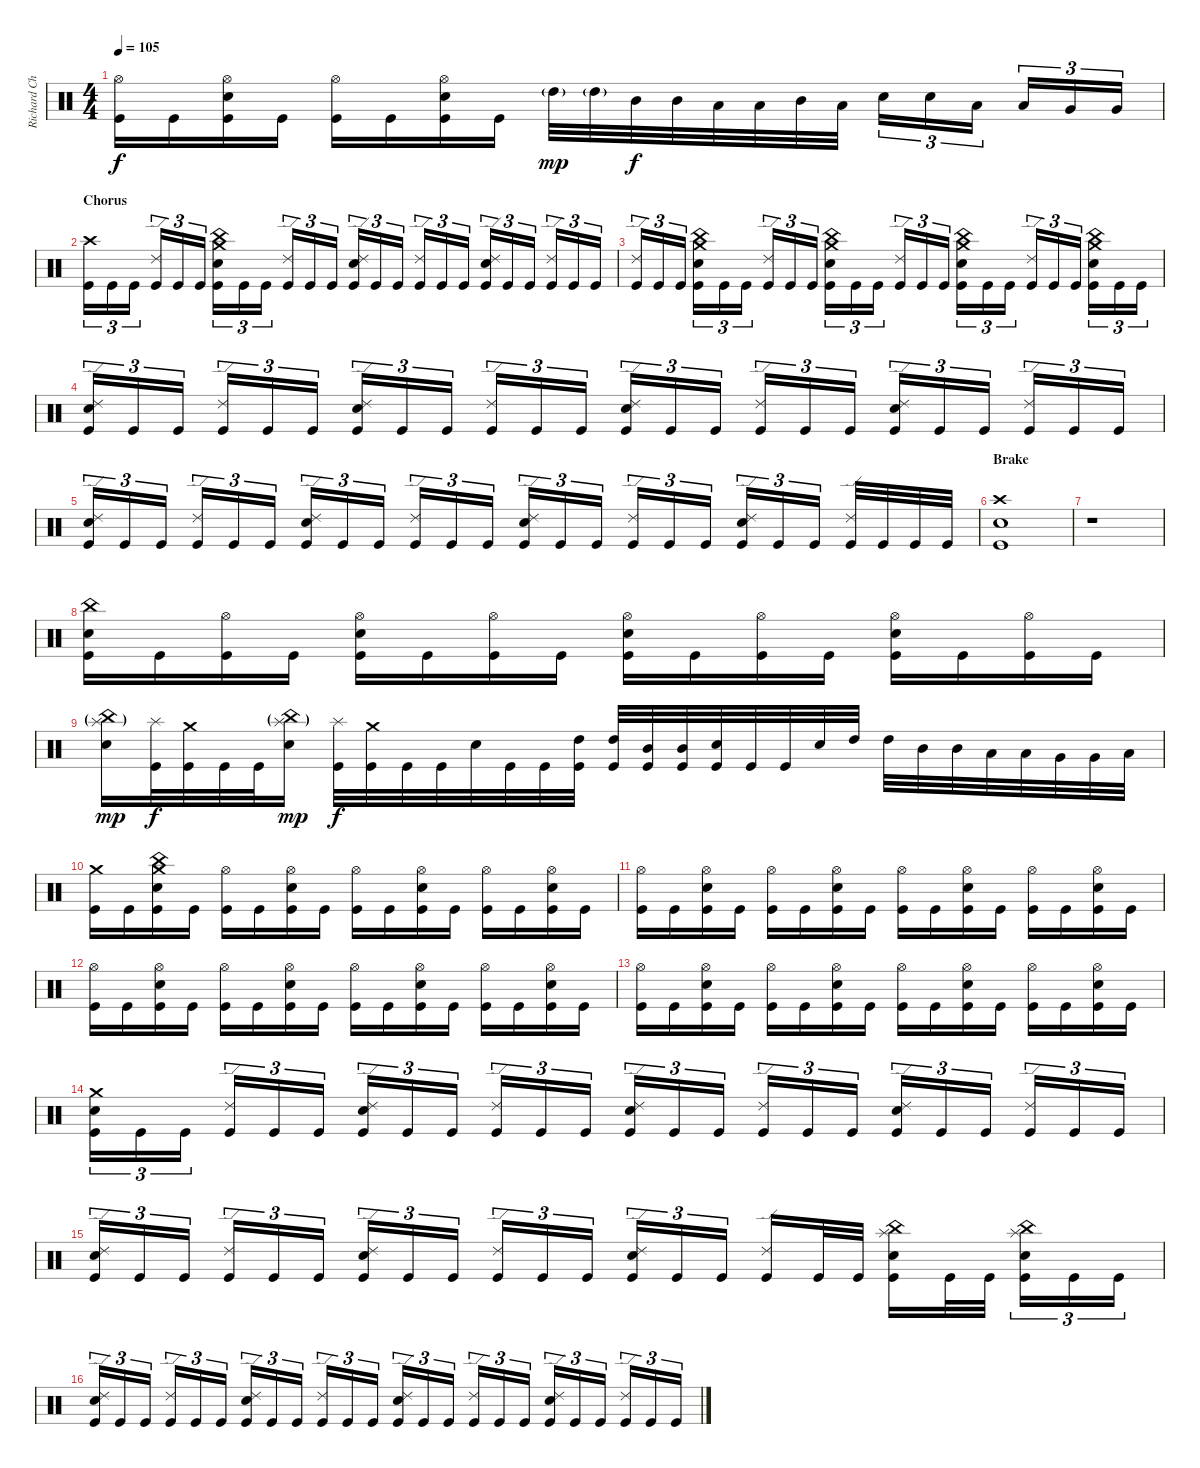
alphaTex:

\track ("Richard Christy" "Richard Ch") {instrument percussion}
\staff {score}
\articulation defaults
\ts (4 4)
\tempo 105
\clef neutral
\ks c
("Hi-Hat (open)" "Kick (hit)").16{dy f} "Kick (hit)".16 ("Hi-Hat (open)" "Electric Snare (hit)" "Kick (hit)").16 "Kick (hit)".16 ("Hi-Hat (open)" "Kick (hit)").16 "Kick (hit)".16 ("Hi-Hat (open)" "Electric Snare (hit)" "Kick (hit)").16 "Kick (hit)".16 "High Tom (hit)"{g}.32{dy mp} "High Tom (hit)"{g}.32 "Mid Tom (hit)".32{dy f} "Mid Tom (hit)".32 "Low Tom (hit)".32 "Low Tom (hit)".32 "Mid Tom (hit)".32 "Low Tom (hit)".32 "Electric Snare (hit)".16{tu (3 2)} "Electric Snare (hit)".16{tu (3 2)} "Low Tom (hit)".16{tu (3 2)} "Low Tom (hit)".16{tu (3 2)} "Very Low Tom (hit)".16{tu (3 2)} "Very Low Tom (hit)".16{tu (3 2)} |
\section ("" "Chorus")
("Crash high (hit)" "Kick (hit)").16{tu (3 2)} "Kick (hit)".16{tu (3 2)} "Kick (hit)".16{tu (3 2)} ("Ride (edge) 2" "Kick (hit)").16{tu (3 2)} "Kick (hit)".16{tu (3 2)} "Kick (hit)".16{tu (3 2)} ("Crash medium (hit)" "China (hit)" "Electric Snare (hit)" "Kick (hit)").16{tu (3 2)} "Kick (hit)".16{tu (3 2)} "Kick (hit)".16{tu (3 2)} ("Ride (edge) 2" "Kick (hit)").16{tu (3 2)} "Kick (hit)".16{tu (3 2)} "Kick (hit)".16{tu (3 2)} ("Ride (edge) 2" "Electric Snare (hit)" "Kick (hit)").16{tu (3 2)} "Kick (hit)".16{tu (3 2)} "Kick (hit)".16{tu (3 2)} ("Ride (edge) 2" "Kick (hit)").16{tu (3 2)} "Kick (hit)".16{tu (3 2)} "Kick (hit)".16{tu (3 2)} ("Ride (edge) 2" "Electric Snare (hit)" "Kick (hit)").16{tu (3 2)} "Kick (hit)".16{tu (3 2)} "Kick (hit)".16{tu (3 2)} ("Ride (edge) 2" "Kick (hit)").16{tu (3 2)} "Kick (hit)".16{tu (3 2)} "Kick (hit)".16{tu (3 2)} |
("Ride (edge) 2" "Kick (hit)").16{tu (3 2)} "Kick (hit)".16{tu (3 2)} "Kick (hit)".16{tu (3 2)} ("Crash medium (hit)" "China (hit)" "Electric Snare (hit)" "Kick (hit)").16{tu (3 2)} "Kick (hit)".16{tu (3 2)} "Kick (hit)".16{tu (3 2)} ("Ride (edge) 2" "Kick (hit)").16{tu (3 2)} "Kick (hit)".16{tu (3 2)} "Kick (hit)".16{tu (3 2)} ("Crash medium (hit)" "China (hit)" "Electric Snare (hit)" "Kick (hit)").16{tu (3 2)} "Kick (hit)".16{tu (3 2)} "Kick (hit)".16{tu (3 2)} ("Ride (edge) 2" "Kick (hit)").16{tu (3 2)} "Kick (hit)".16{tu (3 2)} "Kick (hit)".16{tu (3 2)} ("Crash medium (hit)" "China (hit)" "Electric Snare (hit)" "Kick (hit)").16{tu (3 2)} "Kick (hit)".16{tu (3 2)} "Kick (hit)".16{tu (3 2)} ("Ride (edge) 2" "Kick (hit)").16{tu (3 2)} "Kick (hit)".16{tu (3 2)} "Kick (hit)".16{tu (3 2)} ("Crash medium (hit)" "China (hit)" "Electric Snare (hit)" "Kick (hit)").16{tu (3 2)} "Kick (hit)".16{tu (3 2)} "Kick (hit)".16{tu (3 2)} |
("Ride (edge) 2" "Electric Snare (hit)" "Kick (hit)").16{tu (3 2)} "Kick (hit)".16{tu (3 2)} "Kick (hit)".16{tu (3 2)} ("Ride (edge) 2" "Kick (hit)").16{tu (3 2)} "Kick (hit)".16{tu (3 2)} "Kick (hit)".16{tu (3 2)} ("Ride (edge) 2" "Electric Snare (hit)" "Kick (hit)").16{tu (3 2)} "Kick (hit)".16{tu (3 2)} "Kick (hit)".16{tu (3 2)} ("Ride (edge) 2" "Kick (hit)").16{tu (3 2)} "Kick (hit)".16{tu (3 2)} "Kick (hit)".16{tu (3 2)} ("Ride (edge) 2" "Electric Snare (hit)" "Kick (hit)").16{tu (3 2)} "Kick (hit)".16{tu (3 2)} "Kick (hit)".16{tu (3 2)} ("Ride (edge) 2" "Kick (hit)").16{tu (3 2)} "Kick (hit)".16{tu (3 2)} "Kick (hit)".16{tu (3 2)} ("Ride (edge) 2" "Electric Snare (hit)" "Kick (hit)").16{tu (3 2)} "Kick (hit)".16{tu (3 2)} "Kick (hit)".16{tu (3 2)} ("Ride (edge) 2" "Kick (hit)").16{tu (3 2)} "Kick (hit)".16{tu (3 2)} "Kick (hit)".16{tu (3 2)} |
("Ride (edge) 2" "Electric Snare (hit)" "Kick (hit)").16{tu (3 2)} "Kick (hit)".16{tu (3 2)} "Kick (hit)".16{tu (3 2)} ("Ride (edge) 2" "Kick (hit)").16{tu (3 2)} "Kick (hit)".16{tu (3 2)} "Kick (hit)".16{tu (3 2)} ("Ride (edge) 2" "Electric Snare (hit)" "Kick (hit)").16{tu (3 2)} "Kick (hit)".16{tu (3 2)} "Kick (hit)".16{tu (3 2)} ("Ride (edge) 2" "Kick (hit)").16{tu (3 2)} "Kick (hit)".16{tu (3 2)} "Kick (hit)".16{tu (3 2)} ("Ride (edge) 2" "Electric Snare (hit)" "Kick (hit)").16{tu (3 2)} "Kick (hit)".16{tu (3 2)} "Kick (hit)".16{tu (3 2)} ("Ride (edge) 2" "Kick (hit)").16{tu (3 2)} "Kick (hit)".16{tu (3 2)} "Kick (hit)".16{tu (3 2)} ("Ride (edge) 2" "Electric Snare (hit)" "Kick (hit)").16{tu (3 2)} "Kick (hit)".16{tu (3 2)} "Kick (hit)".16{tu (3 2)} ("Ride (edge) 2" "Kick (hit)").32 "Kick (hit)".32 "Kick (hit)".32 "Kick (hit)".32 |
\section ("" "Brake")
("Crash high (hit)" "Electric Snare (hit)" "Kick (hit)").1 |
r.1 |
("China (hit)" "Electric Snare (hit)" "Kick (hit)").16 "Kick (hit)".16 ("Hi-Hat (open)" "Kick (hit)").16 "Kick (hit)".16 ("Hi-Hat (open)" "Electric Snare (hit)" "Kick (hit)").16 "Kick (hit)".16 ("Hi-Hat (open)" "Kick (hit)").16 "Kick (hit)".16 ("Hi-Hat (open)" "Electric Snare (hit)" "Kick (hit)").16 "Kick (hit)".16 ("Hi-Hat (open)" "Kick (hit)").16 "Kick (hit)".16 ("Hi-Hat (open)" "Electric Snare (hit)" "Kick (hit)").16 "Kick (hit)".16 ("Hi-Hat (open)" "Kick (hit)").16 "Kick (hit)".16 |
("Splash (hit)"{g} "China (hit)"{g} "Electric Snare (hit)").16{dy mp} ("Splash (hit)" "Kick (hit)").32{dy f} ("Crash medium (hit)" "Kick (hit)").32 "Kick (hit)".32 "Kick (hit)".32 ("Splash (hit)"{g} "China (hit)"{g} "Electric Snare (hit)").16{dy mp} ("Splash (hit)" "Kick (hit)").32{dy f} ("Crash medium (hit)" "Kick (hit)").32 "Kick (hit)".32 "Kick (hit)".32 "Electric Snare (hit)".32 "Kick (hit)".32 "Kick (hit)".32 ("High Tom (hit)" "Kick (hit)").32 ("High Tom (hit)" "Kick (hit)").32 ("Mid Tom (hit)" "Kick (hit)").32 ("Mid Tom (hit)" "Kick (hit)").32 ("Electric Snare (hit)" "Kick (hit)").32 "Kick (hit)".32 "Kick (hit)".32 "Electric Snare (hit)".32 "High Tom (hit)".32 "High Tom (hit)".32 "Mid Tom (hit)".32 "Mid Tom (hit)".32 "Low Tom (hit)".32 "Low Tom (hit)".32 "Very Low Tom (hit)".32 "Very Low Tom (hit)".32 "Low Floor Tom (hit)".32 |
("Crash medium (hit)" "Kick (hit)").16 "Kick (hit)".16 ("Crash medium (hit)" "China (hit)" "Electric Snare (hit)" "Kick (hit)").16 "Kick (hit)".16 ("Hi-Hat (open)" "Kick (hit)").16 "Kick (hit)".16 ("Hi-Hat (open)" "Electric Snare (hit)" "Kick (hit)").16 "Kick (hit)".16 ("Hi-Hat (open)" "Kick (hit)").16 "Kick (hit)".16 ("Hi-Hat (open)" "Electric Snare (hit)" "Kick (hit)").16 "Kick (hit)".16 ("Hi-Hat (open)" "Kick (hit)").16 "Kick (hit)".16 ("Hi-Hat (open)" "Electric Snare (hit)" "Kick (hit)").16 "Kick (hit)".16 |
("Hi-Hat (open)" "Kick (hit)").16 "Kick (hit)".16 ("Hi-Hat (open)" "Electric Snare (hit)" "Kick (hit)").16 "Kick (hit)".16 ("Hi-Hat (open)" "Kick (hit)").16 "Kick (hit)".16 ("Hi-Hat (open)" "Electric Snare (hit)" "Kick (hit)").16 "Kick (hit)".16 ("Hi-Hat (open)" "Kick (hit)").16 "Kick (hit)".16 ("Hi-Hat (open)" "Electric Snare (hit)" "Kick (hit)").16 "Kick (hit)".16 ("Hi-Hat (open)" "Kick (hit)").16 "Kick (hit)".16 ("Hi-Hat (open)" "Electric Snare (hit)" "Kick (hit)").16 "Kick (hit)".16 |
("Hi-Hat (open)" "Kick (hit)").16 "Kick (hit)".16 ("Hi-Hat (open)" "Electric Snare (hit)" "Kick (hit)").16 "Kick (hit)".16 ("Hi-Hat (open)" "Kick (hit)").16 "Kick (hit)".16 ("Hi-Hat (open)" "Electric Snare (hit)" "Kick (hit)").16 "Kick (hit)".16 ("Hi-Hat (open)" "Kick (hit)").16 "Kick (hit)".16 ("Hi-Hat (open)" "Electric Snare (hit)" "Kick (hit)").16 "Kick (hit)".16 ("Hi-Hat (open)" "Kick (hit)").16 "Kick (hit)".16 ("Hi-Hat (open)" "Electric Snare (hit)" "Kick (hit)").16 "Kick (hit)".16 |
("Hi-Hat (open)" "Kick (hit)").16 "Kick (hit)".16 ("Hi-Hat (open)" "Electric Snare (hit)" "Kick (hit)").16 "Kick (hit)".16 ("Hi-Hat (open)" "Kick (hit)").16 "Kick (hit)".16 ("Hi-Hat (open)" "Electric Snare (hit)" "Kick (hit)").16 "Kick (hit)".16 ("Hi-Hat (open)" "Kick (hit)").16 "Kick (hit)".16 ("Hi-Hat (open)" "Electric Snare (hit)" "Kick (hit)").16 "Kick (hit)".16 ("Hi-Hat (open)" "Kick (hit)").16 "Kick (hit)".16 ("Hi-Hat (open)" "Electric Snare (hit)" "Kick (hit)").16 "Kick (hit)".16 |
("Crash medium (hit)" "Electric Snare (hit)" "Kick (hit)").16{tu (3 2)} "Kick (hit)".16{tu (3 2)} "Kick (hit)".16{tu (3 2)} ("Ride (edge) 2" "Kick (hit)").16{tu (3 2)} "Kick (hit)".16{tu (3 2)} "Kick (hit)".16{tu (3 2)} ("Ride (edge) 2" "Electric Snare (hit)" "Kick (hit)").16{tu (3 2)} "Kick (hit)".16{tu (3 2)} "Kick (hit)".16{tu (3 2)} ("Ride (edge) 2" "Kick (hit)").16{tu (3 2)} "Kick (hit)".16{tu (3 2)} "Kick (hit)".16{tu (3 2)} ("Ride (edge) 2" "Electric Snare (hit)" "Kick (hit)").16{tu (3 2)} "Kick (hit)".16{tu (3 2)} "Kick (hit)".16{tu (3 2)} ("Ride (edge) 2" "Kick (hit)").16{tu (3 2)} "Kick (hit)".16{tu (3 2)} "Kick (hit)".16{tu (3 2)} ("Ride (edge) 2" "Electric Snare (hit)" "Kick (hit)").16{tu (3 2)} "Kick (hit)".16{tu (3 2)} "Kick (hit)".16{tu (3 2)} ("Ride (edge) 2" "Kick (hit)").16{tu (3 2)} "Kick (hit)".16{tu (3 2)} "Kick (hit)".16{tu (3 2)} |
("Ride (edge) 2" "Electric Snare (hit)" "Kick (hit)").16{tu (3 2)} "Kick (hit)".16{tu (3 2)} "Kick (hit)".16{tu (3 2)} ("Ride (edge) 2" "Kick (hit)").16{tu (3 2)} "Kick (hit)".16{tu (3 2)} "Kick (hit)".16{tu (3 2)} ("Ride (edge) 2" "Electric Snare (hit)" "Kick (hit)").16{tu (3 2)} "Kick (hit)".16{tu (3 2)} "Kick (hit)".16{tu (3 2)} ("Ride (edge) 2" "Kick (hit)").16{tu (3 2)} "Kick (hit)".16{tu (3 2)} "Kick (hit)".16{tu (3 2)} ("Ride (edge) 2" "Electric Snare (hit)" "Kick (hit)").16{tu (3 2)} "Kick (hit)".16{tu (3 2)} "Kick (hit)".16{tu (3 2)} ("Ride (edge) 2" "Kick (hit)").16 "Kick (hit)".32 "Kick (hit)".32 ("Splash (hit)" "China (hit)" "Electric Snare (hit)" "Kick (hit)").16 "Kick (hit)".32 "Kick (hit)".32 ("Splash (hit)" "China (hit)" "Electric Snare (hit)" "Kick (hit)").16{tu (3 2)} "Kick (hit)".16{tu (3 2)} "Kick (hit)".16{tu (3 2)} |
("Ride (edge) 2" "Electric Snare (hit)" "Kick (hit)").16{tu (3 2)} "Kick (hit)".16{tu (3 2)} "Kick (hit)".16{tu (3 2)} ("Ride (edge) 2" "Kick (hit)").16{tu (3 2)} "Kick (hit)".16{tu (3 2)} "Kick (hit)".16{tu (3 2)} ("Ride (edge) 2" "Electric Snare (hit)" "Kick (hit)").16{tu (3 2)} "Kick (hit)".16{tu (3 2)} "Kick (hit)".16{tu (3 2)} ("Ride (edge) 2" "Kick (hit)").16{tu (3 2)} "Kick (hit)".16{tu (3 2)} "Kick (hit)".16{tu (3 2)} ("Ride (edge) 2" "Electric Snare (hit)" "Kick (hit)").16{tu (3 2)} "Kick (hit)".16{tu (3 2)} "Kick (hit)".16{tu (3 2)} ("Ride (edge) 2" "Kick (hit)").16{tu (3 2)} "Kick (hit)".16{tu (3 2)} "Kick (hit)".16{tu (3 2)} ("Ride (edge) 2" "Electric Snare (hit)" "Kick (hit)").16{tu (3 2)} "Kick (hit)".16{tu (3 2)} "Kick (hit)".16{tu (3 2)} ("Ride (edge) 2" "Kick (hit)").16{tu (3 2)} "Kick (hit)".16{tu (3 2)} "Kick (hit)".16{tu (3 2)}
